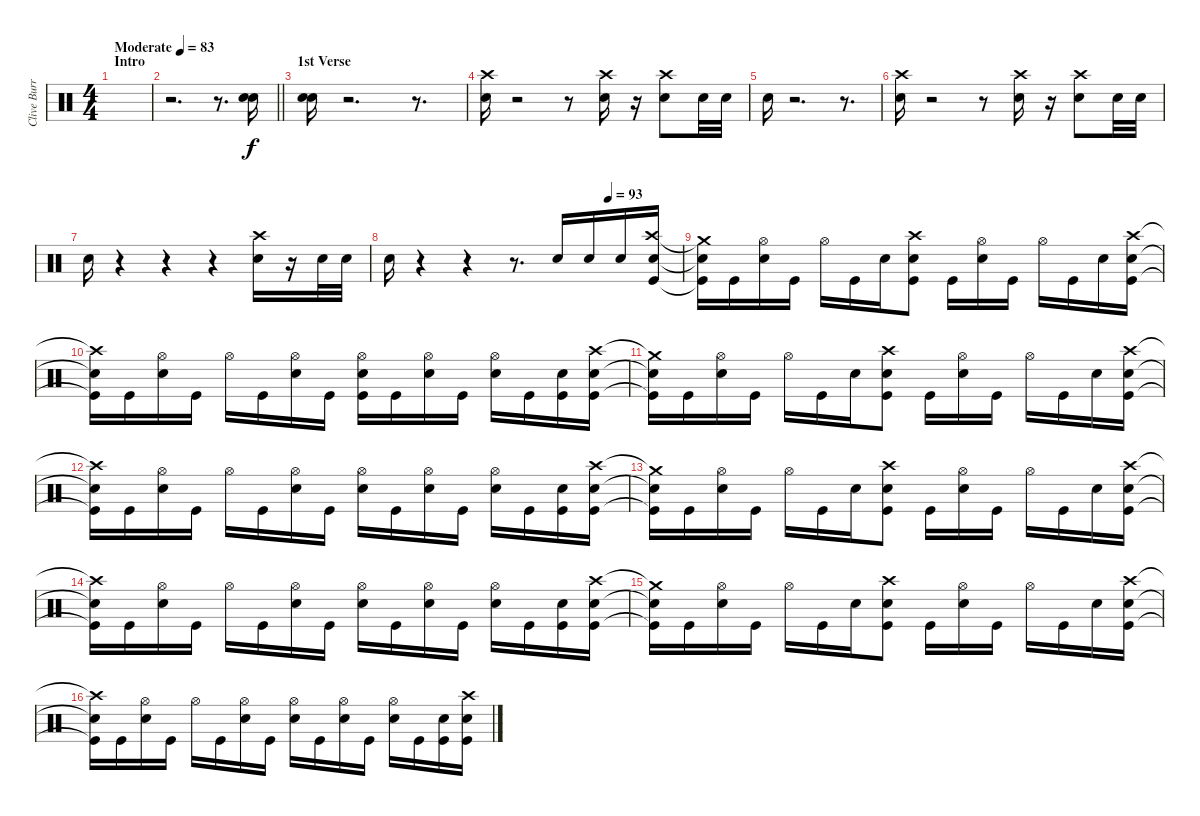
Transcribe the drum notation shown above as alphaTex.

\track ("Clive Burr" "Clive Burr") {instrument percussion}
\staff {score}
\articulation defaults
\ts (4 4)
\section ("" "Intro")
\tempo (83 "Moderate")
\clef neutral
\ks c
|
\barLineRight lightlight
r.2{d} r.8{d} ("Electric Snare (hit)" "Electric Snare (hit)").16 |
\section ("" "1st Verse")
("Electric Snare (hit)" "Electric Snare (hit)").16 r.2{d} r.8{d} |
("Crash high (hit)" "Electric Snare (hit)").16 r.2 r.8 ("Crash high (hit)" "Electric Snare (hit)").16 r.16 ("Crash high (hit)" "Electric Snare (hit)").8 "Electric Snare (hit)".32 "Electric Snare (hit)".32 |
"Electric Snare (hit)".16 r.2{d} r.8{d} |
("Crash high (hit)" "Electric Snare (hit)").16 r.2 r.8 ("Crash high (hit)" "Electric Snare (hit)").16 r.16 ("Crash high (hit)" "Electric Snare (hit)").8 "Electric Snare (hit)".32 "Electric Snare (hit)".32 |
"Electric Snare (hit)".16 r.4 r.4 r.4 ("Crash high (hit)" "Electric Snare (hit)").16 r.16 "Electric Snare (hit)".32 "Electric Snare (hit)".32 |
\tempo (93 0.75)
"Electric Snare (hit)".16 r.4 r.4 r.8{d} "Electric Snare (hit)".16 "Electric Snare (hit)".16 "Electric Snare (hit)".16 ("Crash high (hit)" "Electric Snare (hit)" "Kick (hit)").16 |
("Crash medium (hit)"{t} "Electric Snare (hit)"{t} "Kick (hit)"{t}).16 "Kick (hit)".16 ("Hi-Hat (open)" "Electric Snare (hit)").16 "Kick (hit)".16 "Hi-Hat (open)".16 "Kick (hit)".16 "Electric Snare (hit)".16 ("Crash high (hit)" "Electric Snare (hit)" "Kick (hit)").8 "Kick (hit)".16 ("Hi-Hat (open)" "Electric Snare (hit)").16 "Kick (hit)".16 "Hi-Hat (open)".16 "Kick (hit)".16 "Electric Snare (hit)".16 ("Crash high (hit)" "Electric Snare (hit)" "Kick (hit)").16 |
("Crash high (hit)"{t} "Electric Snare (hit)"{t} "Kick (hit)"{t}).16 "Kick (hit)".16 ("Electric Snare (hit)" "Hi-Hat (open)").16 "Kick (hit)".16 "Hi-Hat (open)".16 "Kick (hit)".16 ("Electric Snare (hit)" "Hi-Hat (open)").16 "Kick (hit)".16 ("Electric Snare (hit)" "Hi-Hat (open)" "Kick (hit)").16 "Kick (hit)".16 ("Electric Snare (hit)" "Hi-Hat (open)").16 "Kick (hit)".16 ("Electric Snare (hit)" "Hi-Hat (open)").16 "Kick (hit)".16 ("Electric Snare (hit)" "Kick (hit)").16 ("Crash high (hit)" "Electric Snare (hit)" "Kick (hit)").16 |
("Crash medium (hit)"{t} "Electric Snare (hit)"{t} "Kick (hit)"{t}).16 "Kick (hit)".16 ("Hi-Hat (open)" "Electric Snare (hit)").16 "Kick (hit)".16 "Hi-Hat (open)".16 "Kick (hit)".16 "Electric Snare (hit)".16 ("Crash high (hit)" "Electric Snare (hit)" "Kick (hit)").8 "Kick (hit)".16 ("Hi-Hat (open)" "Electric Snare (hit)").16 "Kick (hit)".16 "Hi-Hat (open)".16 "Kick (hit)".16 "Electric Snare (hit)".16 ("Crash high (hit)" "Electric Snare (hit)" "Kick (hit)").16 |
("Crash high (hit)"{t} "Electric Snare (hit)"{t} "Kick (hit)"{t}).16 "Kick (hit)".16 ("Electric Snare (hit)" "Hi-Hat (open)").16 "Kick (hit)".16 "Hi-Hat (open)".16 "Kick (hit)".16 ("Electric Snare (hit)" "Hi-Hat (open)").16 "Kick (hit)".16 ("Electric Snare (hit)" "Hi-Hat (open)").16 "Kick (hit)".16 ("Electric Snare (hit)" "Hi-Hat (open)").16 "Kick (hit)".16 ("Electric Snare (hit)" "Hi-Hat (open)").16 "Kick (hit)".16 ("Electric Snare (hit)" "Kick (hit)").16 ("Crash high (hit)" "Electric Snare (hit)" "Kick (hit)").16 |
("Crash medium (hit)"{t} "Electric Snare (hit)"{t} "Kick (hit)"{t}).16 "Kick (hit)".16 ("Hi-Hat (open)" "Electric Snare (hit)").16 "Kick (hit)".16 "Hi-Hat (open)".16 "Kick (hit)".16 "Electric Snare (hit)".16 ("Crash high (hit)" "Electric Snare (hit)" "Kick (hit)").8 "Kick (hit)".16 ("Hi-Hat (open)" "Electric Snare (hit)").16 "Kick (hit)".16 "Hi-Hat (open)".16 "Kick (hit)".16 "Electric Snare (hit)".16 ("Crash high (hit)" "Electric Snare (hit)" "Kick (hit)").16 |
("Crash high (hit)"{t} "Electric Snare (hit)"{t} "Kick (hit)"{t}).16 "Kick (hit)".16 ("Electric Snare (hit)" "Hi-Hat (open)").16 "Kick (hit)".16 "Hi-Hat (open)".16 "Kick (hit)".16 ("Electric Snare (hit)" "Hi-Hat (open)").16 "Kick (hit)".16 ("Electric Snare (hit)" "Hi-Hat (open)").16 "Kick (hit)".16 ("Electric Snare (hit)" "Hi-Hat (open)").16 "Kick (hit)".16 ("Electric Snare (hit)" "Hi-Hat (open)").16 "Kick (hit)".16 ("Electric Snare (hit)" "Kick (hit)").16 ("Crash high (hit)" "Electric Snare (hit)" "Kick (hit)").16 |
("Crash medium (hit)"{t} "Electric Snare (hit)"{t} "Kick (hit)"{t}).16 "Kick (hit)".16 ("Hi-Hat (open)" "Electric Snare (hit)").16 "Kick (hit)".16 "Hi-Hat (open)".16 "Kick (hit)".16 "Electric Snare (hit)".16 ("Crash high (hit)" "Electric Snare (hit)" "Kick (hit)").8 "Kick (hit)".16 ("Hi-Hat (open)" "Electric Snare (hit)").16 "Kick (hit)".16 "Hi-Hat (open)".16 "Kick (hit)".16 "Electric Snare (hit)".16 ("Crash high (hit)" "Electric Snare (hit)" "Kick (hit)").16 |
("Crash high (hit)"{t} "Electric Snare (hit)"{t} "Kick (hit)"{t}).16 "Kick (hit)".16 ("Electric Snare (hit)" "Hi-Hat (open)").16 "Kick (hit)".16 "Hi-Hat (open)".16 "Kick (hit)".16 ("Electric Snare (hit)" "Hi-Hat (open)").16 "Kick (hit)".16 ("Electric Snare (hit)" "Hi-Hat (open)").16 "Kick (hit)".16 ("Electric Snare (hit)" "Hi-Hat (open)").16 "Kick (hit)".16 ("Electric Snare (hit)" "Hi-Hat (open)").16 "Kick (hit)".16 ("Electric Snare (hit)" "Kick (hit)").16 ("Crash high (hit)" "Electric Snare (hit)" "Kick (hit)").16
